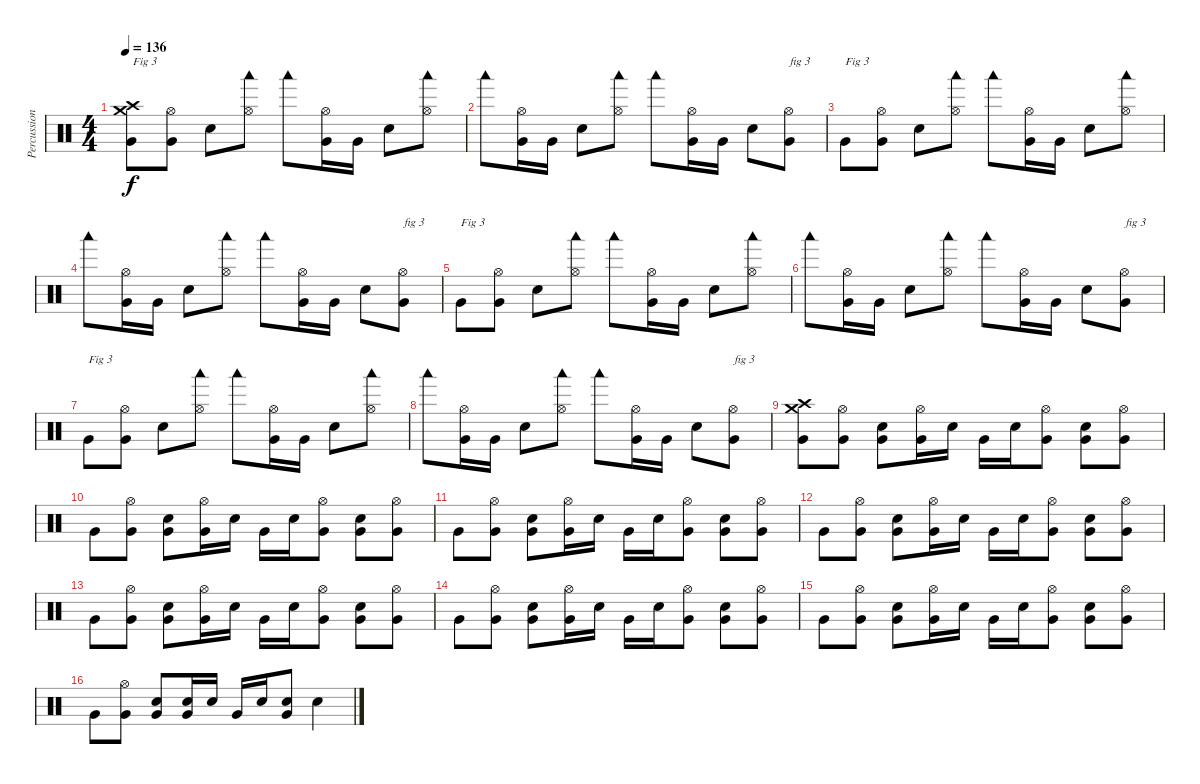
\track ("Percussions" "Percussion") {instrument percussion}
\staff {score}
\articulation defaults
\ts (4 4)
\tempo 136
\clef neutral
\ks c
("Very Low Tom (hit)" "Crash high (hit)" "Crash medium (hit)").8{txt "Fig 3" dy f} ("Very Low Tom (hit)" "Hi-Hat (open)").8 "Snare (hit) 2".8 ("Woodblock low (hit)" "Hi-Hat (open)").8 "Woodblock low (hit)".8 ("Very Low Tom (hit)" "Hi-Hat (open)").16 "Very Low Tom (hit)".16 "Snare (hit) 2".8 ("Woodblock low (hit)" "Hi-Hat (open)").8 |
"Woodblock low (hit)".8 ("Very Low Tom (hit)" "Hi-Hat (open)").16 "Very Low Tom (hit)".16 "Snare (hit) 2".8 ("Woodblock low (hit)" "Hi-Hat (open)").8 "Woodblock low (hit)".8 ("Very Low Tom (hit)" "Hi-Hat (open)").16 "Very Low Tom (hit)".16 "Snare (hit) 2".8 ("Very Low Tom (hit)" "Hi-Hat (open)").8{txt "fig 3"} |
"Very Low Tom (hit)".8{txt "Fig 3"} ("Very Low Tom (hit)" "Hi-Hat (open)").8 "Snare (hit) 2".8 ("Woodblock low (hit)" "Hi-Hat (open)").8 "Woodblock low (hit)".8 ("Very Low Tom (hit)" "Hi-Hat (open)").16 "Very Low Tom (hit)".16 "Snare (hit) 2".8 ("Woodblock low (hit)" "Hi-Hat (open)").8 |
"Woodblock low (hit)".8 ("Very Low Tom (hit)" "Hi-Hat (open)").16 "Very Low Tom (hit)".16 "Snare (hit) 2".8 ("Woodblock low (hit)" "Hi-Hat (open)").8 "Woodblock low (hit)".8 ("Very Low Tom (hit)" "Hi-Hat (open)").16 "Very Low Tom (hit)".16 "Snare (hit) 2".8 ("Very Low Tom (hit)" "Hi-Hat (open)").8{txt "fig 3"} |
"Very Low Tom (hit)".8{txt "Fig 3"} ("Very Low Tom (hit)" "Hi-Hat (open)").8 "Snare (hit) 2".8 ("Woodblock low (hit)" "Hi-Hat (open)").8 "Woodblock low (hit)".8 ("Very Low Tom (hit)" "Hi-Hat (open)").16 "Very Low Tom (hit)".16 "Snare (hit) 2".8 ("Woodblock low (hit)" "Hi-Hat (open)").8 |
"Woodblock low (hit)".8 ("Very Low Tom (hit)" "Hi-Hat (open)").16 "Very Low Tom (hit)".16 "Snare (hit) 2".8 ("Woodblock low (hit)" "Hi-Hat (open)").8 "Woodblock low (hit)".8 ("Very Low Tom (hit)" "Hi-Hat (open)").16 "Very Low Tom (hit)".16 "Snare (hit) 2".8 ("Very Low Tom (hit)" "Hi-Hat (open)").8{txt "fig 3"} |
"Very Low Tom (hit)".8{txt "Fig 3"} ("Very Low Tom (hit)" "Hi-Hat (open)").8 "Snare (hit) 2".8 ("Woodblock low (hit)" "Hi-Hat (open)").8 "Woodblock low (hit)".8 ("Very Low Tom (hit)" "Hi-Hat (open)").16 "Very Low Tom (hit)".16 "Snare (hit) 2".8 ("Woodblock low (hit)" "Hi-Hat (open)").8 |
"Woodblock low (hit)".8 ("Very Low Tom (hit)" "Hi-Hat (open)").16 "Very Low Tom (hit)".16 "Snare (hit) 2".8 ("Woodblock low (hit)" "Hi-Hat (open)").8 "Woodblock low (hit)".8 ("Very Low Tom (hit)" "Hi-Hat (open)").16 "Very Low Tom (hit)".16 "Snare (hit) 2".8 ("Very Low Tom (hit)" "Hi-Hat (open)").8{txt "fig 3"} |
("Very Low Tom (hit)" "Crash high (hit)" "Crash medium (hit)").8 ("Very Low Tom (hit)" "Hi-Hat (open)").8 ("Very Low Tom (hit)" "Snare (hit) 2").8 ("Very Low Tom (hit)" "Hi-Hat (open)").16 "Snare (hit) 2".16 "Very Low Tom (hit)".16 "Snare (hit) 2".16 ("Very Low Tom (hit)" "Hi-Hat (open)").8 ("Very Low Tom (hit)" "Snare (hit) 2").8 ("Very Low Tom (hit)" "Hi-Hat (open)").8 |
"Very Low Tom (hit)".8 ("Very Low Tom (hit)" "Hi-Hat (open)").8 ("Very Low Tom (hit)" "Snare (hit) 2").8 ("Very Low Tom (hit)" "Hi-Hat (open)").16 "Snare (hit) 2".16 "Very Low Tom (hit)".16 "Snare (hit) 2".16 ("Very Low Tom (hit)" "Hi-Hat (open)").8 ("Very Low Tom (hit)" "Snare (hit) 2").8 ("Very Low Tom (hit)" "Hi-Hat (open)").8 |
"Very Low Tom (hit)".8 ("Very Low Tom (hit)" "Hi-Hat (open)").8 ("Very Low Tom (hit)" "Snare (hit) 2").8 ("Very Low Tom (hit)" "Hi-Hat (open)").16 "Snare (hit) 2".16 "Very Low Tom (hit)".16 "Snare (hit) 2".16 ("Very Low Tom (hit)" "Hi-Hat (open)").8 ("Very Low Tom (hit)" "Snare (hit) 2").8 ("Very Low Tom (hit)" "Hi-Hat (open)").8 |
"Very Low Tom (hit)".8 ("Very Low Tom (hit)" "Hi-Hat (open)").8 ("Very Low Tom (hit)" "Snare (hit) 2").8 ("Very Low Tom (hit)" "Hi-Hat (open)").16 "Snare (hit) 2".16 "Very Low Tom (hit)".16 "Snare (hit) 2".16 ("Very Low Tom (hit)" "Hi-Hat (open)").8 ("Very Low Tom (hit)" "Snare (hit) 2").8 ("Very Low Tom (hit)" "Hi-Hat (open)").8 |
"Very Low Tom (hit)".8 ("Very Low Tom (hit)" "Hi-Hat (open)").8 ("Very Low Tom (hit)" "Snare (hit) 2").8 ("Very Low Tom (hit)" "Hi-Hat (open)").16 "Snare (hit) 2".16 "Very Low Tom (hit)".16 "Snare (hit) 2".16 ("Very Low Tom (hit)" "Hi-Hat (open)").8 ("Very Low Tom (hit)" "Snare (hit) 2").8 ("Very Low Tom (hit)" "Hi-Hat (open)").8 |
"Very Low Tom (hit)".8 ("Very Low Tom (hit)" "Hi-Hat (open)").8 ("Very Low Tom (hit)" "Snare (hit) 2").8 ("Very Low Tom (hit)" "Hi-Hat (open)").16 "Snare (hit) 2".16 "Very Low Tom (hit)".16 "Snare (hit) 2".16 ("Very Low Tom (hit)" "Hi-Hat (open)").8 ("Very Low Tom (hit)" "Snare (hit) 2").8 ("Very Low Tom (hit)" "Hi-Hat (open)").8 |
"Very Low Tom (hit)".8 ("Very Low Tom (hit)" "Hi-Hat (open)").8 ("Very Low Tom (hit)" "Snare (hit) 2").8 ("Very Low Tom (hit)" "Hi-Hat (open)").16 "Snare (hit) 2".16 "Very Low Tom (hit)".16 "Snare (hit) 2".16 ("Very Low Tom (hit)" "Hi-Hat (open)").8 ("Very Low Tom (hit)" "Snare (hit) 2").8 ("Very Low Tom (hit)" "Hi-Hat (open)").8 |
"Very Low Tom (hit)".8 ("Very Low Tom (hit)" "Hi-Hat (open)").8 ("Very Low Tom (hit)" "Snare (hit) 2").8 ("Very Low Tom (hit)" "Snare (hit) 2").16 "Snare (hit) 2".16 "Very Low Tom (hit)".16 "Snare (hit) 2".16 ("Very Low Tom (hit)" "Snare (hit) 2").8 "Snare (hit) 2".4
